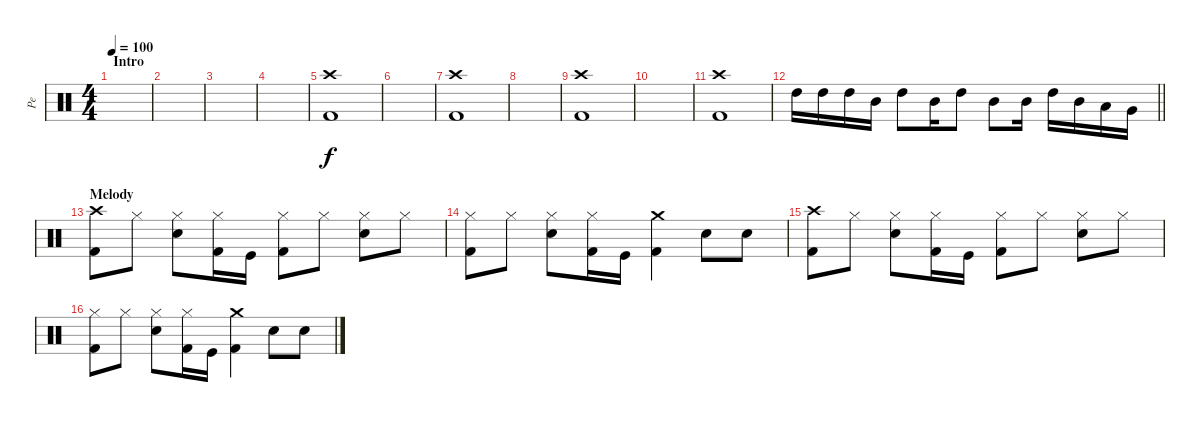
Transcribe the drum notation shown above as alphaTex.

\track ("Pe" "Pe") {instrument percussion}
\staff {score}
\articulation defaults
\ts (4 4)
\section ("" "Intro")
\tempo 100
\clef neutral
\ks c
|
|
|
|
("Kick (hit) 2" "Crash high (hit)").1 |
|
("Kick (hit) 2" "Crash high (hit)").1 |
|
("Kick (hit) 2" "Crash high (hit)").1 |
|
("Kick (hit) 2" "Crash high (hit)").1 |
\barLineRight lightlight "High Tom (hit)".16 "High Tom (hit)".16 "High Tom (hit)".16 "Mid Tom (hit)".16 "High Tom (hit)".8 "Mid Tom (hit)".16 "High Tom (hit)".8 "Mid Tom (hit)".8 "Mid Tom (hit)".16 "High Tom (hit)".16 "Mid Tom (hit)".16 "Low Tom (hit)".16 "Very Low Tom (hit)".16
|
\section ("" "Melody")
("Kick (hit) 2" "Crash high (hit)").8 "Hi-Hat (closed)".8 ("Electric Snare (hit)" "Hi-Hat (closed)").8 ("Kick (hit) 2" "Hi-Hat (closed)").16 "Kick (hit)".16 ("Kick (hit) 2" "Hi-Hat (closed)").8 "Hi-Hat (closed)".8 ("Electric Snare (hit)" "Hi-Hat (closed)").8 "Hi-Hat (closed)".8 |
("Kick (hit) 2" "Hi-Hat (closed)").8 "Hi-Hat (closed)".8 ("Electric Snare (hit)" "Hi-Hat (closed)").8 ("Kick (hit) 2" "Hi-Hat (closed)").16 "Kick (hit)".16 ("Kick (hit) 2" "Crash medium (hit)").4 "Electric Snare (hit)".8 "Electric Snare (hit)".8 |
("Kick (hit) 2" "Crash high (hit)").8 "Hi-Hat (closed)".8 ("Electric Snare (hit)" "Hi-Hat (closed)").8 ("Kick (hit) 2" "Hi-Hat (closed)").16 "Kick (hit)".16 ("Kick (hit) 2" "Hi-Hat (closed)").8 "Hi-Hat (closed)".8 ("Electric Snare (hit)" "Hi-Hat (closed)").8 "Hi-Hat (closed)".8 |
("Kick (hit) 2" "Hi-Hat (closed)").8 "Hi-Hat (closed)".8 ("Electric Snare (hit)" "Hi-Hat (closed)").8 ("Kick (hit) 2" "Hi-Hat (closed)").16 "Kick (hit)".16 ("Kick (hit) 2" "Crash medium (hit)").4 "Electric Snare (hit)".8 "Electric Snare (hit)".8
